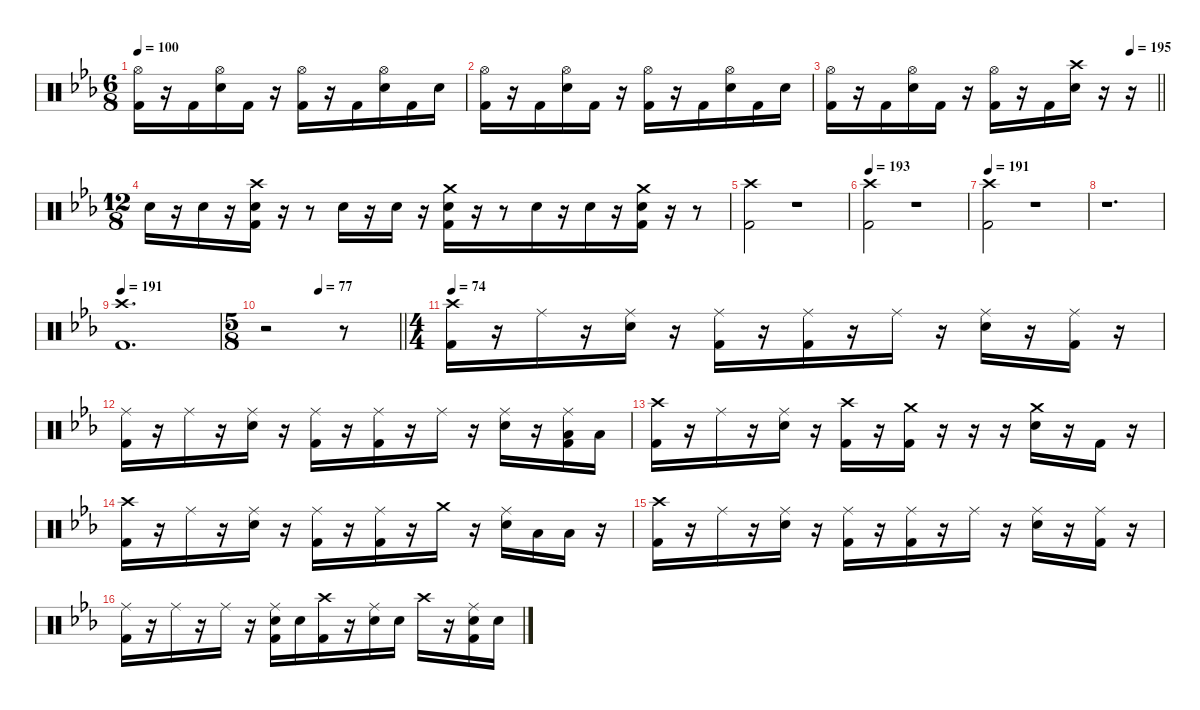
\defaultSystemsLayout 4
\hideDynamics
\bracketExtendMode nobrackets
\singleTrackTrackNamePolicy hidden
\multiTrackTrackNamePolicy hidden
\firstSystemTrackNameMode fullname
\otherSystemsTrackNameOrientation horizontal
\track ("DRUMS" "drm.") {instrument percussion}
\staff {score}
\articulation defaults
\ts (6 8)
\tempo 100
\clef neutral
\ks eb
("Hi-Hat (open)"{acc forcenatural} "Kick (hit) 2"{acc forcenatural}).16{dy f beam Down} r.16{beam Down} "Kick (hit) 2"{acc forcenatural}.16{beam Down} ("Hi-Hat (open)"{acc forcenatural} "Snare (hit) 2"{acc forcenatural}).16{beam Down} "Kick (hit) 2"{acc forcenatural}.16{beam Down} r.16{beam Down} ("Hi-Hat (open)"{acc forcenatural} "Kick (hit) 2"{acc forcenatural}).16{beam Down} r.16{beam Down} "Kick (hit) 2"{acc forcenatural}.16{beam Down} ("Hi-Hat (open)"{acc forcenatural} "Snare (hit) 2"{acc forcenatural}).16{beam Down} "Kick (hit) 2"{acc forcenatural}.16{beam Down} "Snare (hit) 2"{acc forcenatural}.16{dy ff beam Down} |
("Hi-Hat (open)"{acc forcenatural} "Kick (hit) 2"{acc forcenatural}).16{dy f beam Down} r.16{beam Down} "Kick (hit) 2"{acc forcenatural}.16{beam Down} ("Hi-Hat (open)"{acc forcenatural} "Snare (hit) 2"{acc forcenatural}).16{beam Down} "Kick (hit) 2"{acc forcenatural}.16{beam Down} r.16{beam Down} ("Hi-Hat (open)"{acc forcenatural} "Kick (hit) 2"{acc forcenatural}).16{beam Down} r.16{beam Down} "Kick (hit) 2"{acc forcenatural}.16{beam Down} ("Hi-Hat (open)"{acc forcenatural} "Snare (hit) 2"{acc forcenatural}).16{beam Down} "Kick (hit) 2"{acc forcenatural}.16{beam Down} "Snare (hit) 2"{acc forcenatural}.16{dy ff beam Down} |
\tempo (195 0.916667)
\barLineRight lightlight
("Hi-Hat (open)"{acc forcenatural} "Kick (hit) 2"{acc forcenatural}).16{dy f beam Down} r.16{beam Down} "Kick (hit) 2"{acc forcenatural}.16{beam Down} ("Hi-Hat (open)"{acc forcenatural} "Snare (hit) 2"{acc forcenatural}).16{beam Down} "Kick (hit) 2"{acc forcenatural}.16{beam Down} r.16{beam Down} ("Hi-Hat (open)"{acc forcenatural} "Kick (hit) 2"{acc forcenatural}).16{beam Down} r.16{beam Down} "Kick (hit) 2"{acc forcenatural}.16{beam Down} ("Crash high (hit)"{acc forcenatural} "Snare (hit) 2"{acc forcenatural}).16{beam Down} r.16{beam Down} r.16{beam Down} |
\ts (12 8)
\beaming (8 3 3 6)
"Snare (hit) 2"{acc forcenatural}.16{beam Down} r.16{beam Down} "Snare (hit) 2"{acc forcenatural}.16{beam Down} r.16{beam Down} ("Crash high (hit)"{acc forcenatural} "Snare (hit) 2"{acc forcenatural} "Kick (hit) 2"{acc forcenatural}).16{dy ff beam Down} r.16{beam Down} r.8{beam Down} "Snare (hit) 2"{acc forcenatural}.16{dy f beam Down} r.16{beam Down} "Snare (hit) 2"{acc forcenatural}.16{beam Down} r.16{beam Down} ("Crash medium (hit)"{acc forcenatural} "Snare (hit) 2"{acc forcenatural} "Kick (hit) 2"{acc forcenatural}).16{beam Down} r.16{beam Down} r.8{beam Down} "Snare (hit) 2"{acc forcenatural}.16{beam Down} r.16{beam Down} "Snare (hit) 2"{acc forcenatural}.16{beam Down} r.16{beam Down} ("Crash medium (hit)"{acc forcenatural} "Snare (hit) 2"{acc forcenatural} "Kick (hit) 2"{acc forcenatural}).16{beam Down} r.16{beam Down} r.8{beam Down} |
("Crash high (hit)"{acc forcenatural} "Kick (hit) 2"{acc forcenatural}).2{beam Down} r.1{beam Down} |
\tempo 193
("Crash high (hit)"{acc forcenatural} "Kick (hit) 2"{acc forcenatural}).2{beam Down} r.1{beam Down} |
\tempo 191
("Crash high (hit)"{acc forcenatural} "Kick (hit) 2"{acc forcenatural}).2{beam Down} r.1{beam Down} |
r.1{d beam Down} |
\tempo 191
("Crash high (hit)"{acc forcenatural} "Kick (hit) 2"{acc forcenatural}).1{d dy mf beam Down} |
\ts (5 8)
\beaming (8 3 2)
\tempo (77 0.4)
\barLineRight lightlight
r.2{beam Down} r.8{beam Down} |
\ts (4 4)
\beaming (8 3 3 2)
\tempo 74
("Crash high (hit)"{acc forcenatural} "Kick (hit) 2"{acc forcenatural}).16{dy f beam Down} r.16{beam Down} "Ride (middle)"{acc forcenatural}.16{beam Down} r.16{beam Down} ("Ride (middle)"{acc forcenatural} "Snare (hit) 2"{acc forcenatural}).16{beam Down} r.16{beam Down} ("Ride (middle)"{acc forcenatural} "Kick (hit) 2"{acc forcenatural}).16{dy ff beam Down} r.16{beam Down} ("Ride (middle)"{acc forcenatural} "Kick (hit) 2"{acc forcenatural}).16{dy f beam Down} r.16{beam Down} "Ride (middle)"{acc forcenatural}.16{beam Down} r.16{beam Down} ("Ride (middle)"{acc forcenatural} "Snare (hit) 2"{acc forcenatural}).16{beam Down} r.16{beam Down} ("Ride (middle)"{acc forcenatural} "Kick (hit) 2"{acc forcenatural}).16{dy ff beam Down} r.16{beam Down} |
("Ride (middle)"{acc forcenatural} "Kick (hit) 2"{acc forcenatural}).16{dy f beam Down} r.16{beam Down} "Ride (middle)"{acc forcenatural}.16{beam Down} r.16{beam Down} ("Ride (middle)"{acc forcenatural} "Snare (hit) 2"{acc forcenatural}).16{beam Down} r.16{beam Down} ("Ride (middle)"{acc forcenatural} "Kick (hit) 2"{acc forcenatural}).16{dy ff beam Down} r.16{beam Down} ("Ride (middle)"{acc forcenatural} "Kick (hit) 2"{acc forcenatural}).16{dy f beam Down} r.16{beam Down} "Ride (middle)"{acc forcenatural}.16{beam Down} r.16{beam Down} ("Ride (middle)"{acc forcenatural} "Snare (hit) 2"{acc forcenatural}).16{beam Down} r.16{beam Down} ("Ride (middle)"{acc forcenatural} "Low Tom (hit)"{acc forcenatural} "Kick (hit) 2"{acc forcenatural}).16{dy ff beam Down} "Low Tom (hit)"{acc forcenatural}.16{beam Down} |
("Crash high (hit)"{acc forcenatural} "Kick (hit) 2"{acc forcenatural}).16{dy f beam Down} r.16{beam Down} "Ride (middle)"{acc forcenatural}.16{beam Down} r.16{beam Down} ("Ride (middle)"{acc forcenatural} "Snare (hit) 2"{acc forcenatural}).16{beam Down} r.16{beam Down} ("Crash high (hit)"{acc forcenatural} "Kick (hit) 2"{acc forcenatural}).16{dy ff beam Down} r.16{beam Down} ("Crash medium (hit)"{acc forcenatural} "Kick (hit) 2"{acc forcenatural}).16{dy f beam Down} r.16{beam Down} r.16{beam Down} r.16{beam Down} ("Crash medium (hit)"{acc forcenatural} "Snare (hit) 2"{acc forcenatural}).16{beam Down} r.16{beam Down} "Kick (hit) 2"{acc forcenatural}.16{beam Down} r.16{beam Down} |
("Crash high (hit)"{acc forcenatural} "Kick (hit) 2"{acc forcenatural}).16{beam Down} r.16{beam Down} "Ride (middle)"{acc forcenatural}.16{beam Down} r.16{beam Down} ("Ride (middle)"{acc forcenatural} "Snare (hit) 2"{acc forcenatural}).16{beam Down} r.16{beam Down} ("Ride (middle)"{acc forcenatural} "Kick (hit) 2"{acc forcenatural}).16{dy ff beam Down} r.16{beam Down} ("Ride (middle)"{acc forcenatural} "Kick (hit) 2"{acc forcenatural}).16{dy f beam Down} r.16{beam Down} "Crash medium (hit)"{acc forcenatural}.16{beam Down} r.16{beam Down} ("Ride (middle)"{acc forcenatural} "Snare (hit) 2"{acc forcenatural}).16{beam Down} "Low Tom (hit)"{acc forcenatural}.16{dy ff beam Down} "Low Tom (hit)"{acc forcenatural}.16{beam Down} r.16{beam Down} |
("Crash high (hit)"{acc forcenatural} "Kick (hit) 2"{acc forcenatural}).16{dy f beam Down} r.16{beam Down} "Ride (middle)"{acc forcenatural}.16{beam Down} r.16{beam Down} ("Ride (middle)"{acc forcenatural} "Snare (hit) 2"{acc forcenatural}).16{beam Down} r.16{beam Down} ("Ride (middle)"{acc forcenatural} "Kick (hit) 2"{acc forcenatural}).16{dy ff beam Down} r.16{beam Down} ("Ride (middle)"{acc forcenatural} "Kick (hit) 2"{acc forcenatural}).16{dy f beam Down} r.16{beam Down} "Ride (middle)"{acc forcenatural}.16{beam Down} r.16{beam Down} ("Ride (middle)"{acc forcenatural} "Snare (hit) 2"{acc forcenatural}).16{beam Down} r.16{beam Down} ("Ride (middle)"{acc forcenatural} "Kick (hit) 2"{acc forcenatural}).16{dy ff beam Down} r.16{beam Down} |
("Ride (middle)"{acc forcenatural} "Kick (hit) 2"{acc forcenatural}).16{dy f beam Down} r.16{beam Down} "Ride (middle)"{acc forcenatural}.16{beam Down} r.16{beam Down} "Ride (middle)"{acc forcenatural}.16{beam Down} r.16{beam Down} ("Ride (middle)"{acc forcenatural} "Snare (hit) 2"{acc forcenatural} "Kick (hit) 2"{acc forcenatural}).16{dy ff beam Down} "Snare (hit) 2"{acc forcenatural}.16{beam Down} ("Crash high (hit)"{acc forcenatural} "Kick (hit) 2"{acc forcenatural}).16{dy f beam Down} r.16{beam Down} ("Ride (middle)"{acc forcenatural} "Snare (hit) 2"{acc forcenatural}).16{beam Down} "Snare (hit) 2"{acc forcenatural}.16{dy ff beam Down} "Crash high (hit)"{acc forcenatural}.16{dy f beam Down} r.16{beam Down} ("Ride (middle)"{acc forcenatural} "Snare (hit) 2"{acc forcenatural} "Kick (hit) 2"{acc forcenatural}).16{dy ff beam Down} "Snare (hit) 2"{acc forcenatural}.16{beam Down}
